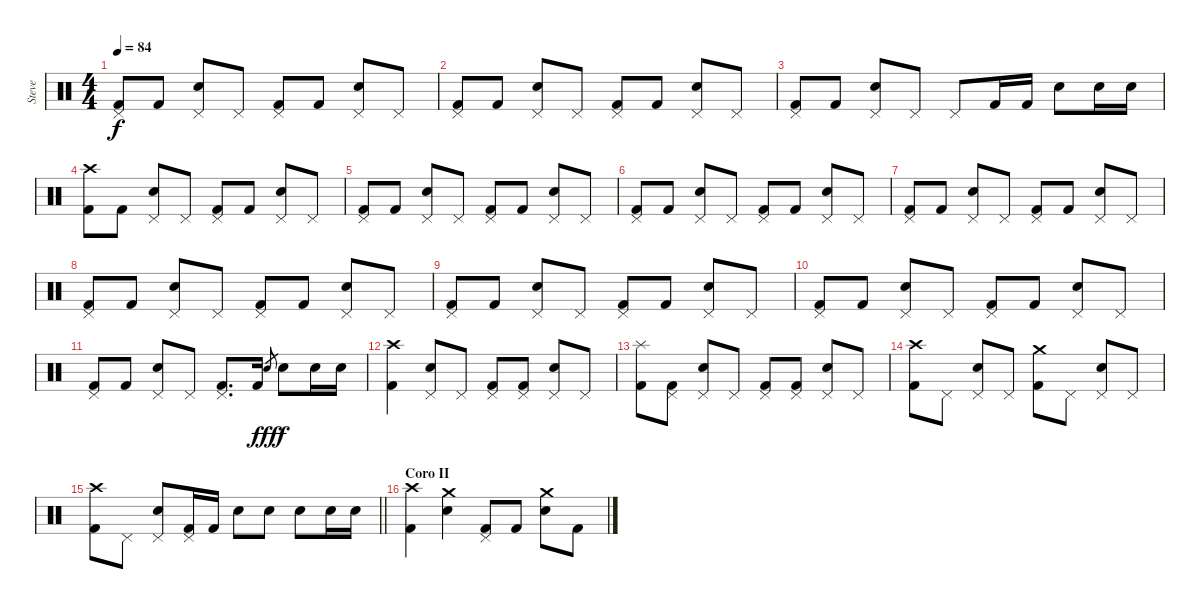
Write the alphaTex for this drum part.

\track ("Steve" "Steve") {instrument percussion}
\staff {score}
\articulation defaults
\ts (4 4)
\tempo 84
\clef neutral
\ks c
("Pedal Hi-Hat (hit)" "Kick (hit) 2").8{dy f} "Kick (hit) 2".8 ("Pedal Hi-Hat (hit)" "Snare (hit) 2").8 "Pedal Hi-Hat (hit)".8 ("Pedal Hi-Hat (hit)" "Kick (hit) 2").8 "Kick (hit) 2".8 ("Pedal Hi-Hat (hit)" "Snare (hit) 2").8 "Pedal Hi-Hat (hit)".8 |
("Pedal Hi-Hat (hit)" "Kick (hit) 2").8 "Kick (hit) 2".8 ("Pedal Hi-Hat (hit)" "Snare (hit) 2").8 "Pedal Hi-Hat (hit)".8 ("Pedal Hi-Hat (hit)" "Kick (hit) 2").8 "Kick (hit) 2".8 ("Pedal Hi-Hat (hit)" "Snare (hit) 2").8 "Pedal Hi-Hat (hit)".8 |
("Pedal Hi-Hat (hit)" "Kick (hit) 2").8 "Kick (hit) 2".8 ("Pedal Hi-Hat (hit)" "Snare (hit) 2").8 "Pedal Hi-Hat (hit)".8 "Pedal Hi-Hat (hit)".8 "Kick (hit) 2".16 "Kick (hit) 2".16 "Snare (hit) 2".8 "Snare (hit) 2".16 "Snare (hit) 2".16 |
("Crash high (hit)" "Kick (hit) 2").8 "Kick (hit) 2".8 ("Pedal Hi-Hat (hit)" "Snare (hit) 2").8 "Pedal Hi-Hat (hit)".8 ("Pedal Hi-Hat (hit)" "Kick (hit) 2").8 "Kick (hit) 2".8 ("Pedal Hi-Hat (hit)" "Snare (hit) 2").8 "Pedal Hi-Hat (hit)".8 |
("Pedal Hi-Hat (hit)" "Kick (hit) 2").8 "Kick (hit) 2".8 ("Pedal Hi-Hat (hit)" "Snare (hit) 2").8 "Pedal Hi-Hat (hit)".8 ("Pedal Hi-Hat (hit)" "Kick (hit) 2").8 "Kick (hit) 2".8 ("Pedal Hi-Hat (hit)" "Snare (hit) 2").8 "Pedal Hi-Hat (hit)".8 |
("Pedal Hi-Hat (hit)" "Kick (hit) 2").8 "Kick (hit) 2".8 ("Pedal Hi-Hat (hit)" "Snare (hit) 2").8 "Pedal Hi-Hat (hit)".8 ("Pedal Hi-Hat (hit)" "Kick (hit) 2").8 "Kick (hit) 2".8 ("Pedal Hi-Hat (hit)" "Snare (hit) 2").8 "Pedal Hi-Hat (hit)".8 |
("Pedal Hi-Hat (hit)" "Kick (hit) 2").8 "Kick (hit) 2".8 ("Pedal Hi-Hat (hit)" "Snare (hit) 2").8 "Pedal Hi-Hat (hit)".8 ("Pedal Hi-Hat (hit)" "Kick (hit) 2").8 "Kick (hit) 2".8 ("Pedal Hi-Hat (hit)" "Snare (hit) 2").8 "Pedal Hi-Hat (hit)".8 |
("Pedal Hi-Hat (hit)" "Kick (hit) 2").8 "Kick (hit) 2".8 ("Pedal Hi-Hat (hit)" "Snare (hit) 2").8 "Pedal Hi-Hat (hit)".8 ("Pedal Hi-Hat (hit)" "Kick (hit) 2").8 "Kick (hit) 2".8 ("Pedal Hi-Hat (hit)" "Snare (hit) 2").8 "Pedal Hi-Hat (hit)".8 |
("Pedal Hi-Hat (hit)" "Kick (hit) 2").8 "Kick (hit) 2".8 ("Pedal Hi-Hat (hit)" "Snare (hit) 2").8 "Pedal Hi-Hat (hit)".8 ("Pedal Hi-Hat (hit)" "Kick (hit) 2").8 "Kick (hit) 2".8 ("Pedal Hi-Hat (hit)" "Snare (hit) 2").8 "Pedal Hi-Hat (hit)".8 |
("Pedal Hi-Hat (hit)" "Kick (hit) 2").8 "Kick (hit) 2".8 ("Pedal Hi-Hat (hit)" "Snare (hit) 2").8 "Pedal Hi-Hat (hit)".8 ("Pedal Hi-Hat (hit)" "Kick (hit) 2").8 "Kick (hit) 2".8 ("Pedal Hi-Hat (hit)" "Snare (hit) 2").8 "Pedal Hi-Hat (hit)".8 |
("Pedal Hi-Hat (hit)" "Kick (hit) 2").8 "Kick (hit) 2".8 ("Pedal Hi-Hat (hit)" "Snare (hit) 2").8 "Pedal Hi-Hat (hit)".8 ("Pedal Hi-Hat (hit)" "Kick (hit) 2").8{d} "Kick (hit) 2".16 "Snare (hit) 2".8{gr dy fff} "Snare (hit) 2".8{dy f} "Snare (hit) 2".16 "Snare (hit) 2".16 |
("Crash high (hit)" "Kick (hit) 2").4 ("Pedal Hi-Hat (hit)" "Snare (hit) 2").8 "Pedal Hi-Hat (hit)".8 ("Pedal Hi-Hat (hit)" "Kick (hit) 2").8 ("Pedal Hi-Hat (hit)" "Kick (hit) 2").8 ("Pedal Hi-Hat (hit)" "Snare (hit) 2").8 "Pedal Hi-Hat (hit)".8 |
("Splash (hit)" "Kick (hit) 2").8 ("Pedal Hi-Hat (hit)" "Kick (hit) 2").8 ("Pedal Hi-Hat (hit)" "Snare (hit) 2").8 "Pedal Hi-Hat (hit)".8 ("Pedal Hi-Hat (hit)" "Kick (hit) 2").8 ("Pedal Hi-Hat (hit)" "Kick (hit) 2").8 ("Pedal Hi-Hat (hit)" "Snare (hit) 2").8 "Pedal Hi-Hat (hit)".8 |
("Crash high (hit)" "Kick (hit) 2").8 "Pedal Hi-Hat (hit)".8 ("Pedal Hi-Hat (hit)" "Snare (hit) 2").8 "Pedal Hi-Hat (hit)".8 ("Crash medium (hit)" "Kick (hit) 2").8 "Pedal Hi-Hat (hit)".8 ("Pedal Hi-Hat (hit)" "Snare (hit) 2").8 "Pedal Hi-Hat (hit)".8 |
\barLineRight lightlight
("Crash high (hit)" "Kick (hit) 2").8 "Pedal Hi-Hat (hit)".8 ("Pedal Hi-Hat (hit)" "Snare (hit) 2").8 ("Pedal Hi-Hat (hit)" "Kick (hit) 2").16 "Kick (hit) 2".16 "Snare (hit) 2".8 "Snare (hit) 2".8 "Snare (hit) 2".8 "Snare (hit) 2".16 "Snare (hit) 2".16 |
\section ("" "Coro II")
("Crash high (hit)" "Kick (hit) 2").4 ("Crash medium (hit)" "Snare (hit) 2").4 ("Pedal Hi-Hat (hit)" "Kick (hit) 2").8 "Kick (hit) 2".8 ("Crash medium (hit)" "Snare (hit) 2").8 "Kick (hit) 2".8
